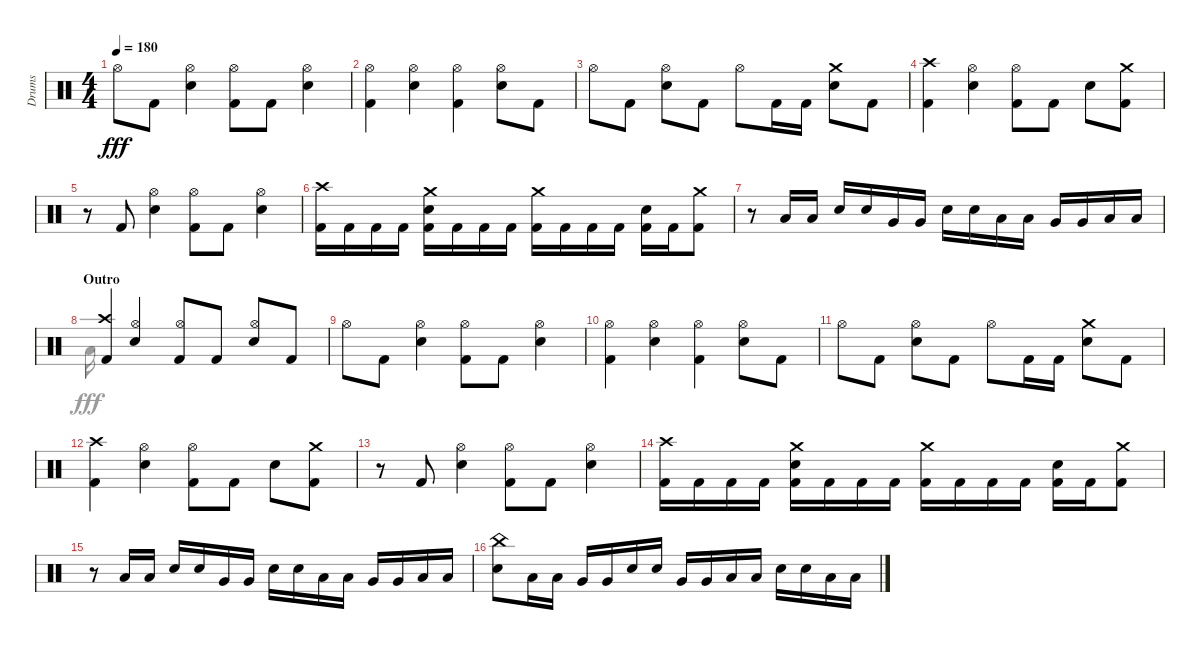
\track ("Drums" "Drums") {instrument percussion}
\staff {score}
\articulation defaults
\voice
\ts (4 4)
\tempo 180
\clef neutral
\ks aminor "Hi-Hat (open)".8{dy fff} "Kick (hit) 2".8
("Snare (hit) 2" "Hi-Hat (open)").4 ("Kick (hit) 2" "Hi-Hat (open)").8 "Kick (hit) 2".8 ("Hi-Hat (open)" "Snare (hit) 2").4 |
("Hi-Hat (open)" "Kick (hit) 2").4 ("Snare (hit) 2" "Hi-Hat (open)").4 ("Kick (hit) 2" "Hi-Hat (open)").4 ("Hi-Hat (open)" "Snare (hit) 2").8 "Kick (hit) 2".8 |
"Hi-Hat (open)".8 "Kick (hit) 2".8 ("Hi-Hat (open)" "Snare (hit) 2").8 "Kick (hit) 2".8 "Hi-Hat (open)".8 "Kick (hit) 2".16 "Kick (hit) 2".16 ("Snare (hit) 2" "Crash medium (hit)").8 "Kick (hit) 2".8 |
("Crash high (hit)" "Kick (hit) 2").4 ("Snare (hit) 2" "Hi-Hat (open)").4 ("Kick (hit) 2" "Hi-Hat (open)").8 "Kick (hit) 2".8 "Snare (hit) 2".8 ("Crash medium (hit)" "Kick (hit) 2").8 |
r.8 "Kick (hit) 2".8 ("Hi-Hat (open)" "Snare (hit) 2").4 ("Kick (hit) 2" "Hi-Hat (open)").8 "Kick (hit) 2".8 ("Snare (hit) 2" "Hi-Hat (open)").4 |
("Kick (hit) 2" "Crash high (hit)").16 "Kick (hit) 2".16 "Kick (hit) 2".16 "Kick (hit) 2".16 ("Kick (hit) 2" "Snare (hit) 2" "Crash medium (hit)").16 "Kick (hit) 2".16 "Kick (hit) 2".16 "Kick (hit) 2".16 ("Kick (hit) 2" "Crash medium (hit)").16 "Kick (hit) 2".16 "Kick (hit) 2".16 "Kick (hit) 2".16 ("Kick (hit) 2" "Snare (hit) 2").16 "Kick (hit) 2".16 ("Crash medium (hit)" "Kick (hit) 2").8 |
r.8 "Low Floor Tom (hit)".16 "Low Floor Tom (hit)".16 "Snare (hit) 2".16 "Snare (hit) 2".16 "Very Low Tom (hit)".16 "Very Low Tom (hit)".16 "Snare (hit) 2".16 "Snare (hit) 2".16 "Low Tom (hit)".16 "Low Tom (hit)".16 "Very Low Tom (hit)".16 "Very Low Tom (hit)".16 "Low Floor Tom (hit)".16 "Low Floor Tom (hit)".16 |
\section ("" "Outro")
("Kick (hit) 2" "Crash high (hit)").4 ("Hi-Hat (open)" "Snare (hit) 2").4 ("Hi-Hat (open)" "Kick (hit) 2").8 "Kick (hit) 2".8 ("Snare (hit) 2" "Hi-Hat (open)").8 "Kick (hit) 2".8 |
"Hi-Hat (open)".8 "Kick (hit) 2".8 ("Snare (hit) 2" "Hi-Hat (open)").4 ("Kick (hit) 2" "Hi-Hat (open)").8 "Kick (hit) 2".8 ("Snare (hit) 2" "Hi-Hat (open)").4 |
("Kick (hit) 2" "Hi-Hat (open)").4 ("Hi-Hat (open)" "Snare (hit) 2").4 ("Kick (hit) 2" "Hi-Hat (open)").4 ("Snare (hit) 2" "Hi-Hat (open)").8 "Kick (hit) 2".8 |
"Hi-Hat (open)".8 "Kick (hit) 2".8 ("Snare (hit) 2" "Hi-Hat (open)").8 "Kick (hit) 2".8 "Hi-Hat (open)".8 "Kick (hit) 2".16 "Kick (hit) 2".16 ("Crash medium (hit)" "Snare (hit) 2").8 "Kick (hit) 2".8 |
("Kick (hit) 2" "Crash high (hit)").4 ("Snare (hit) 2" "Hi-Hat (open)").4 ("Hi-Hat (open)" "Kick (hit) 2").8 "Kick (hit) 2".8 "Snare (hit) 2".8 ("Kick (hit) 2" "Crash medium (hit)").8 |
r.8 "Kick (hit) 2".8 ("Hi-Hat (open)" "Snare (hit) 2").4 ("Kick (hit) 2" "Hi-Hat (open)").8 "Kick (hit) 2".8 ("Snare (hit) 2" "Hi-Hat (open)").4 |
("Kick (hit) 2" "Crash high (hit)").16 "Kick (hit) 2".16 "Kick (hit) 2".16 "Kick (hit) 2".16 ("Kick (hit) 2" "Snare (hit) 2" "Crash medium (hit)").16 "Kick (hit) 2".16 "Kick (hit) 2".16 "Kick (hit) 2".16 ("Kick (hit) 2" "Crash medium (hit)").16 "Kick (hit) 2".16 "Kick (hit) 2".16 "Kick (hit) 2".16 ("Kick (hit) 2" "Snare (hit) 2").16 "Kick (hit) 2".16 ("Kick (hit) 2" "Crash medium (hit)").8 |
r.8 "Low Floor Tom (hit)".16 "Low Floor Tom (hit)".16 "Snare (hit) 2".16 "Snare (hit) 2".16 "Very Low Tom (hit)".16 "Very Low Tom (hit)".16 "Snare (hit) 2".16 "Snare (hit) 2".16 "Low Tom (hit)".16 "Low Tom (hit)".16 "Very Low Tom (hit)".16 "Very Low Tom (hit)".16 "Low Floor Tom (hit)".16 "Low Floor Tom (hit)".16 |
("China (hit)" "Snare (hit) 2").8 "Low Tom (hit)".16 "Low Tom (hit)".16 "Very Low Tom (hit)".16 "Very Low Tom (hit)".16 "Snare (hit) 2".16 "Snare (hit) 2".16 "Very Low Tom (hit)".16 "Very Low Tom (hit)".16 "Low Floor Tom (hit)".16 "Low Floor Tom (hit)".16 "Snare (hit) 2".16 "Snare (hit) 2".16 "Low Floor Tom (hit)".16 "Low Floor Tom (hit)".16
\voice
\clef neutral
\ottava regular
\simile none
\ks aminor
|
|
|
|
|
|
|
"Low Floor Tom (hit)".16 |
|
|
|
|
|
|
|
